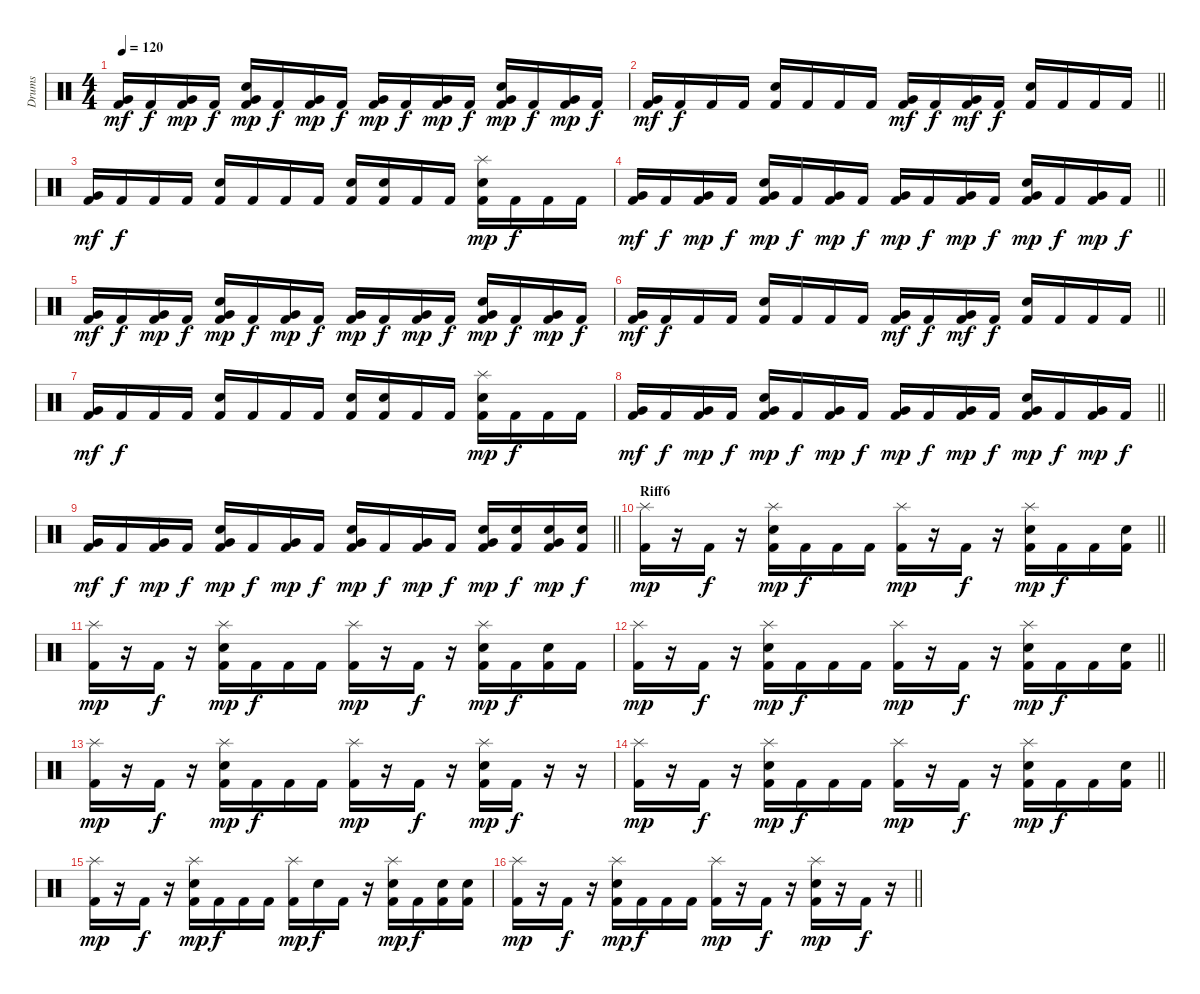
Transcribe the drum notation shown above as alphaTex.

\track ("Drums" "Drums") {instrument percussion}
\staff {score}
\articulation defaults
\ts (4 4)
\tempo 120
\clef neutral
\ks c
("Kick (hit) 2" "Very Low Tom (hit)").16{dy mf} "Kick (hit) 2".16{dy f} ("Kick (hit) 2" "Very Low Tom (hit)").16{dy mp} "Kick (hit) 2".16{dy f} ("Kick (hit) 2" "Very Low Tom (hit)" "Snare (hit) 2").16{dy mp} "Kick (hit) 2".16{dy f} ("Kick (hit) 2" "Very Low Tom (hit)").16{dy mp} "Kick (hit) 2".16{dy f} ("Kick (hit) 2" "Very Low Tom (hit)").16{dy mp} "Kick (hit) 2".16{dy f} ("Kick (hit) 2" "Very Low Tom (hit)").16{dy mp} "Kick (hit) 2".16{dy f} ("Kick (hit) 2" "Very Low Tom (hit)" "Snare (hit) 2").16{dy mp} "Kick (hit) 2".16{dy f} ("Kick (hit) 2" "Very Low Tom (hit)").16{dy mp} "Kick (hit) 2".16{dy f} |
\barLineRight lightlight
("Kick (hit) 2" "Very Low Tom (hit)").16{dy mf} "Kick (hit) 2".16{dy f} "Kick (hit) 2".16 "Kick (hit) 2".16 ("Kick (hit) 2" "Snare (hit) 2").16 "Kick (hit) 2".16 "Kick (hit) 2".16 "Kick (hit) 2".16 ("Kick (hit) 2" "Very Low Tom (hit)").16{dy mf} "Kick (hit) 2".16{dy f} ("Kick (hit) 2" "Very Low Tom (hit)").16{dy mf} "Kick (hit) 2".16{dy f} ("Kick (hit) 2" "Snare (hit) 2").16 "Kick (hit) 2".16 "Kick (hit) 2".16 "Kick (hit) 2".16 |
("Kick (hit) 2" "Very Low Tom (hit)").16{dy mf} "Kick (hit) 2".16{dy f} "Kick (hit) 2".16 "Kick (hit) 2".16 ("Kick (hit) 2" "Snare (hit) 2").16 "Kick (hit) 2".16 "Kick (hit) 2".16 "Kick (hit) 2".16 ("Kick (hit) 2" "Snare (hit) 2").16 ("Kick (hit) 2" "Snare (hit) 2").16 "Kick (hit) 2".16 "Kick (hit) 2".16 ("Kick (hit) 2" "Splash (hit)" "Snare (hit) 2").16{dy mp} "Kick (hit) 2".16{dy f} "Kick (hit) 2".16 "Kick (hit) 2".16 |
\barLineRight lightlight
("Kick (hit) 2" "Very Low Tom (hit)").16{dy mf} "Kick (hit) 2".16{dy f} ("Kick (hit) 2" "Very Low Tom (hit)").16{dy mp} "Kick (hit) 2".16{dy f} ("Kick (hit) 2" "Very Low Tom (hit)" "Snare (hit) 2").16{dy mp} "Kick (hit) 2".16{dy f} ("Kick (hit) 2" "Very Low Tom (hit)").16{dy mp} "Kick (hit) 2".16{dy f} ("Kick (hit) 2" "Very Low Tom (hit)").16{dy mp} "Kick (hit) 2".16{dy f} ("Kick (hit) 2" "Very Low Tom (hit)").16{dy mp} "Kick (hit) 2".16{dy f} ("Kick (hit) 2" "Very Low Tom (hit)" "Snare (hit) 2").16{dy mp} "Kick (hit) 2".16{dy f} ("Kick (hit) 2" "Very Low Tom (hit)").16{dy mp} "Kick (hit) 2".16{dy f} |
("Kick (hit) 2" "Very Low Tom (hit)").16{dy mf} "Kick (hit) 2".16{dy f} ("Kick (hit) 2" "Very Low Tom (hit)").16{dy mp} "Kick (hit) 2".16{dy f} ("Kick (hit) 2" "Very Low Tom (hit)" "Snare (hit) 2").16{dy mp} "Kick (hit) 2".16{dy f} ("Kick (hit) 2" "Very Low Tom (hit)").16{dy mp} "Kick (hit) 2".16{dy f} ("Kick (hit) 2" "Very Low Tom (hit)").16{dy mp} "Kick (hit) 2".16{dy f} ("Kick (hit) 2" "Very Low Tom (hit)").16{dy mp} "Kick (hit) 2".16{dy f} ("Kick (hit) 2" "Very Low Tom (hit)" "Snare (hit) 2").16{dy mp} "Kick (hit) 2".16{dy f} ("Kick (hit) 2" "Very Low Tom (hit)").16{dy mp} "Kick (hit) 2".16{dy f} |
\barLineRight lightlight
("Kick (hit) 2" "Very Low Tom (hit)").16{dy mf} "Kick (hit) 2".16{dy f} "Kick (hit) 2".16 "Kick (hit) 2".16 ("Kick (hit) 2" "Snare (hit) 2").16 "Kick (hit) 2".16 "Kick (hit) 2".16 "Kick (hit) 2".16 ("Kick (hit) 2" "Very Low Tom (hit)").16{dy mf} "Kick (hit) 2".16{dy f} ("Kick (hit) 2" "Very Low Tom (hit)").16{dy mf} "Kick (hit) 2".16{dy f} ("Kick (hit) 2" "Snare (hit) 2").16 "Kick (hit) 2".16 "Kick (hit) 2".16 "Kick (hit) 2".16 |
("Kick (hit) 2" "Very Low Tom (hit)").16{dy mf} "Kick (hit) 2".16{dy f} "Kick (hit) 2".16 "Kick (hit) 2".16 ("Kick (hit) 2" "Snare (hit) 2").16 "Kick (hit) 2".16 "Kick (hit) 2".16 "Kick (hit) 2".16 ("Kick (hit) 2" "Snare (hit) 2").16 ("Kick (hit) 2" "Snare (hit) 2").16 "Kick (hit) 2".16 "Kick (hit) 2".16 ("Kick (hit) 2" "Splash (hit)" "Snare (hit) 2").16{dy mp} "Kick (hit) 2".16{dy f} "Kick (hit) 2".16 "Kick (hit) 2".16 |
\barLineRight lightlight
("Kick (hit) 2" "Very Low Tom (hit)").16{dy mf} "Kick (hit) 2".16{dy f} ("Kick (hit) 2" "Very Low Tom (hit)").16{dy mp} "Kick (hit) 2".16{dy f} ("Kick (hit) 2" "Very Low Tom (hit)" "Snare (hit) 2").16{dy mp} "Kick (hit) 2".16{dy f} ("Kick (hit) 2" "Very Low Tom (hit)").16{dy mp} "Kick (hit) 2".16{dy f} ("Kick (hit) 2" "Very Low Tom (hit)").16{dy mp} "Kick (hit) 2".16{dy f} ("Kick (hit) 2" "Very Low Tom (hit)").16{dy mp} "Kick (hit) 2".16{dy f} ("Kick (hit) 2" "Very Low Tom (hit)" "Snare (hit) 2").16{dy mp} "Kick (hit) 2".16{dy f} ("Kick (hit) 2" "Very Low Tom (hit)").16{dy mp} "Kick (hit) 2".16{dy f} |
\barLineRight lightlight
("Kick (hit) 2" "Very Low Tom (hit)").16{dy mf} "Kick (hit) 2".16{dy f} ("Kick (hit) 2" "Very Low Tom (hit)").16{dy mp} "Kick (hit) 2".16{dy f} ("Kick (hit) 2" "Very Low Tom (hit)" "Snare (hit) 2").16{dy mp} "Kick (hit) 2".16{dy f} ("Kick (hit) 2" "Very Low Tom (hit)").16{dy mp} "Kick (hit) 2".16{dy f} ("Kick (hit) 2" "Very Low Tom (hit)" "Snare (hit) 2").16{dy mp} "Kick (hit) 2".16{dy f} ("Kick (hit) 2" "Very Low Tom (hit)").16{dy mp} "Kick (hit) 2".16{dy f} ("Kick (hit) 2" "Very Low Tom (hit)" "Snare (hit) 2").16{dy mp} ("Kick (hit) 2" "Snare (hit) 2").16{dy f} ("Kick (hit) 2" "Very Low Tom (hit)" "Snare (hit) 2").16{dy mp} ("Kick (hit) 2" "Snare (hit) 2").16{dy f} |
\section ("" "Riff6")
\barLineRight lightlight
("Kick (hit) 2" "Splash (hit)").16{dy mp} r.16 "Kick (hit) 2".16{dy f} r.16 ("Kick (hit) 2" "Splash (hit)" "Snare (hit) 2").16{dy mp} "Kick (hit) 2".16{dy f} "Kick (hit) 2".16 "Kick (hit) 2".16 ("Kick (hit) 2" "Splash (hit)").16{dy mp} r.16 "Kick (hit) 2".16{dy f} r.16 ("Kick (hit) 2" "Splash (hit)" "Snare (hit) 2").16{dy mp} "Kick (hit) 2".16{dy f} "Kick (hit) 2".16 ("Kick (hit) 2" "Snare (hit) 2").16 |
("Kick (hit) 2" "Splash (hit)").16{dy mp} r.16 "Kick (hit) 2".16{dy f} r.16 ("Kick (hit) 2" "Splash (hit)" "Snare (hit) 2").16{dy mp} "Kick (hit) 2".16{dy f} "Kick (hit) 2".16 "Kick (hit) 2".16 ("Kick (hit) 2" "Splash (hit)").16{dy mp} r.16 "Kick (hit) 2".16{dy f} r.16 ("Kick (hit) 2" "Splash (hit)" "Snare (hit) 2").16{dy mp} "Kick (hit) 2".16{dy f} ("Kick (hit) 2" "Snare (hit) 2").16 "Kick (hit) 2".16 |
\barLineRight lightlight
("Kick (hit) 2" "Splash (hit)").16{dy mp} r.16 "Kick (hit) 2".16{dy f} r.16 ("Kick (hit) 2" "Splash (hit)" "Snare (hit) 2").16{dy mp} "Kick (hit) 2".16{dy f} "Kick (hit) 2".16 "Kick (hit) 2".16 ("Kick (hit) 2" "Splash (hit)").16{dy mp} r.16 "Kick (hit) 2".16{dy f} r.16 ("Kick (hit) 2" "Splash (hit)" "Snare (hit) 2").16{dy mp} "Kick (hit) 2".16{dy f} "Kick (hit) 2".16 ("Kick (hit) 2" "Snare (hit) 2").16 |
("Kick (hit) 2" "Splash (hit)").16{dy mp} r.16 "Kick (hit) 2".16{dy f} r.16 ("Kick (hit) 2" "Splash (hit)" "Snare (hit) 2").16{dy mp} "Kick (hit) 2".16{dy f} "Kick (hit) 2".16 "Kick (hit) 2".16 ("Kick (hit) 2" "Splash (hit)").16{dy mp} r.16 "Kick (hit) 2".16{dy f} r.16 ("Kick (hit) 2" "Splash (hit)" "Snare (hit) 2").16{dy mp} "Kick (hit) 2".16{dy f} r.16 r.16 |
\barLineRight lightlight
("Kick (hit) 2" "Splash (hit)").16{dy mp} r.16 "Kick (hit) 2".16{dy f} r.16 ("Kick (hit) 2" "Splash (hit)" "Snare (hit) 2").16{dy mp} "Kick (hit) 2".16{dy f} "Kick (hit) 2".16 "Kick (hit) 2".16 ("Kick (hit) 2" "Splash (hit)").16{dy mp} r.16 "Kick (hit) 2".16{dy f} r.16 ("Kick (hit) 2" "Splash (hit)" "Snare (hit) 2").16{dy mp} "Kick (hit) 2".16{dy f} "Kick (hit) 2".16 ("Kick (hit) 2" "Snare (hit) 2").16 |
("Kick (hit) 2" "Splash (hit)").16{dy mp} r.16 "Kick (hit) 2".16{dy f} r.16 ("Kick (hit) 2" "Splash (hit)" "Snare (hit) 2").16{dy mp} "Kick (hit) 2".16{dy f} "Kick (hit) 2".16 "Kick (hit) 2".16 ("Kick (hit) 2" "Splash (hit)").16{dy mp} "Snare (hit) 2".16{dy f} "Kick (hit) 2".16 r.16 ("Kick (hit) 2" "Splash (hit)" "Snare (hit) 2").16{dy mp} "Kick (hit) 2".16{dy f} ("Kick (hit) 2" "Snare (hit) 2").16 ("Kick (hit) 2" "Snare (hit) 2").16 |
\barLineRight lightlight
("Kick (hit) 2" "Splash (hit)").16{dy mp} r.16 "Kick (hit) 2".16{dy f} r.16 ("Kick (hit) 2" "Splash (hit)" "Snare (hit) 2").16{dy mp} "Kick (hit) 2".16{dy f} "Kick (hit) 2".16 "Kick (hit) 2".16 ("Kick (hit) 2" "Splash (hit)").16{dy mp} r.16 "Kick (hit) 2".16{dy f} r.16 ("Kick (hit) 2" "Splash (hit)" "Snare (hit) 2").16{dy mp} r.16 "Kick (hit) 2".16{dy f} r.16
